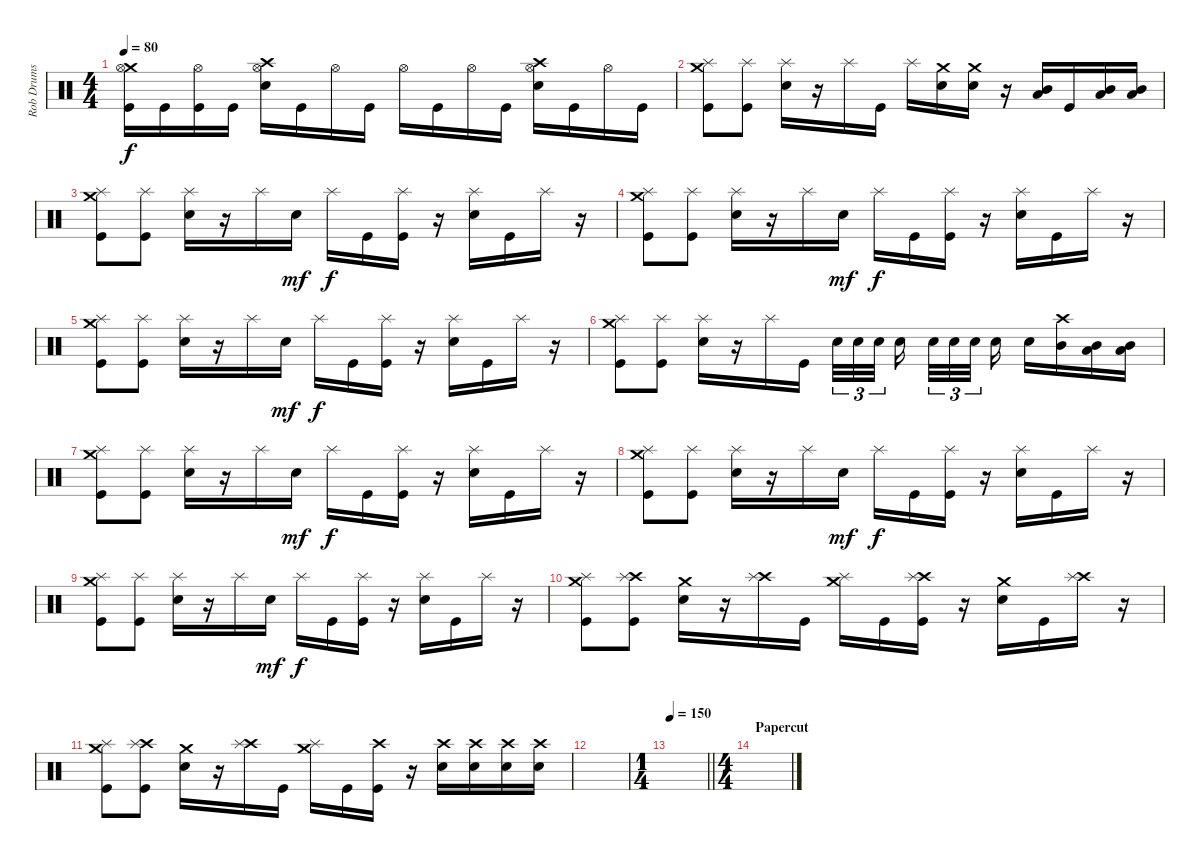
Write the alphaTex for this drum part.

\track ("Rob Drums" "Rob Drums") {instrument percussion}
\staff {score}
\articulation defaults
\ts (4 4)
\tempo 80
\clef neutral
\ks c
("Crash medium (hit)" "Hi-Hat (open)" "Kick (hit)").16{dy f} "Kick (hit)".16 ("Hi-Hat (open)" "Kick (hit)").16 "Kick (hit)".16 ("Crash high (hit)" "Hi-Hat (open)" "Snare (hit) 2").16 "Kick (hit)".16 "Hi-Hat (open)".16 "Kick (hit)".16 "Hi-Hat (open)".16 "Kick (hit)".16 "Hi-Hat (open)".16 "Kick (hit)".16 ("Crash high (hit)" "Hi-Hat (open)" "Snare (hit) 2").16 "Kick (hit)".16 "Hi-Hat (open)".16 "Kick (hit)".16 |
("Crash medium (hit)" "Splash (hit)" "Kick (hit)").8 ("Splash (hit)" "Kick (hit)").8 ("Splash (hit)" "Snare (hit) 2").16 r.16 "Splash (hit)".16 "Kick (hit)".16 "Splash (hit)".16 ("Crash medium (hit)" "Snare (hit)").16 ("Crash medium (hit)" "Snare (hit)").16 r.16 ("Mid Tom (hit)" "Low Tom (hit)").16 "Kick (hit)".16 ("Mid Tom (hit)" "Low Tom (hit)").16 ("Mid Tom (hit)" "Low Tom (hit)").16 |
("Crash medium (hit)" "Splash (hit)" "Kick (hit)").8 ("Splash (hit)" "Kick (hit)").8 ("Splash (hit)" "Snare (hit) 2").16 r.16 "Splash (hit)".16 "Snare (hit) 2".16{dy mf} "Splash (hit)".16{dy f} "Kick (hit)".16 ("Splash (hit)" "Kick (hit)").16 r.16 ("Splash (hit)" "Snare (hit) 2").16 "Kick (hit)".16 "Splash (hit)".16 r.16 |
("Crash medium (hit)" "Splash (hit)" "Kick (hit)").8 ("Splash (hit)" "Kick (hit)").8 ("Splash (hit)" "Snare (hit) 2").16 r.16 "Splash (hit)".16 "Snare (hit) 2".16{dy mf} "Splash (hit)".16{dy f} "Kick (hit)".16 ("Splash (hit)" "Kick (hit)").16 r.16 ("Splash (hit)" "Snare (hit) 2").16 "Kick (hit)".16 "Splash (hit)".16 r.16 |
("Crash medium (hit)" "Splash (hit)" "Kick (hit)").8 ("Splash (hit)" "Kick (hit)").8 ("Splash (hit)" "Snare (hit) 2").16 r.16 "Splash (hit)".16 "Snare (hit) 2".16{dy mf} "Splash (hit)".16{dy f} "Kick (hit)".16 ("Splash (hit)" "Kick (hit)").16 r.16 ("Splash (hit)" "Snare (hit) 2").16 "Kick (hit)".16 "Splash (hit)".16 r.16 |
("Crash medium (hit)" "Splash (hit)" "Kick (hit)").8 ("Splash (hit)" "Kick (hit)").8 ("Splash (hit)" "Snare (hit) 2").16 r.16 "Splash (hit)".16 "Kick (hit)".16 "Snare (hit) 2".32{tu (3 2)} "Snare (hit) 2".32{tu (3 2)} "Snare (hit) 2".32{tu (3 2) beam splitsecondary} "Snare (hit) 2".16{beam splitsecondary} "Snare (hit) 2".32{tu (3 2)} "Snare (hit) 2".32{tu (3 2)} "Snare (hit) 2".32{tu (3 2) beam splitsecondary} "Snare (hit) 2".16 "Snare (hit) 2".16 ("Crash high (hit)" "Mid Tom (hit)").16 ("Mid Tom (hit)" "Low Tom (hit)").16 ("Mid Tom (hit)" "Low Tom (hit)").16 |
("Crash medium (hit)" "Splash (hit)" "Kick (hit)").8 ("Splash (hit)" "Kick (hit)").8 ("Splash (hit)" "Snare (hit) 2").16 r.16 "Splash (hit)".16 "Snare (hit) 2".16{dy mf} "Splash (hit)".16{dy f} "Kick (hit)".16 ("Splash (hit)" "Kick (hit)").16 r.16 ("Splash (hit)" "Snare (hit) 2").16 "Kick (hit)".16 "Splash (hit)".16 r.16 |
("Crash medium (hit)" "Splash (hit)" "Kick (hit)").8 ("Splash (hit)" "Kick (hit)").8 ("Splash (hit)" "Snare (hit) 2").16 r.16 "Splash (hit)".16 "Snare (hit) 2".16{dy mf} "Splash (hit)".16{dy f} "Kick (hit)".16 ("Splash (hit)" "Kick (hit)").16 r.16 ("Splash (hit)" "Snare (hit) 2").16 "Kick (hit)".16 "Splash (hit)".16 r.16 |
("Crash medium (hit)" "Splash (hit)" "Kick (hit)").8 ("Splash (hit)" "Kick (hit)").8 ("Splash (hit)" "Snare (hit) 2").16 r.16 "Splash (hit)".16 "Snare (hit) 2".16{dy mf} "Splash (hit)".16{dy f} "Kick (hit)".16 ("Splash (hit)" "Kick (hit)").16 r.16 ("Splash (hit)" "Snare (hit) 2").16 "Kick (hit)".16 "Splash (hit)".16 r.16 |
("Crash medium (hit)" "Splash (hit)" "Kick (hit)").8 ("Crash high (hit)" "Splash (hit)" "Kick (hit)").8 ("Crash medium (hit)" "Snare (hit) 2").16 r.16 ("Crash high (hit)" "Splash (hit)").16 "Kick (hit)".16 ("Crash medium (hit)" "Splash (hit)").16 "Kick (hit)".16 ("Crash high (hit)" "Splash (hit)" "Kick (hit)").16 r.16 ("Crash medium (hit)" "Snare (hit) 2").16 "Kick (hit)".16 ("Crash high (hit)" "Splash (hit)").16 r.16 |
("Crash medium (hit)" "Splash (hit)" "Kick (hit)").8 ("Crash high (hit)" "Splash (hit)" "Kick (hit)").8 ("Crash medium (hit)" "Snare (hit) 2").16 r.16 ("Crash high (hit)" "Splash (hit)").16 "Kick (hit)".16 ("Crash medium (hit)" "Splash (hit)").16 "Kick (hit)".16 ("Crash high (hit)" "Kick (hit)").16 r.16 ("Crash high (hit)" "Snare (hit) 2").16 ("Crash high (hit)" "Snare (hit) 2").16 ("Crash high (hit)" "Snare (hit) 2").16 ("Crash high (hit)" "Snare (hit) 2").16 |
|
\ts (1 4)
\tempo 150
\barLineRight lightlight
|
\ts (4 4)
\section ("" "Papercut")
